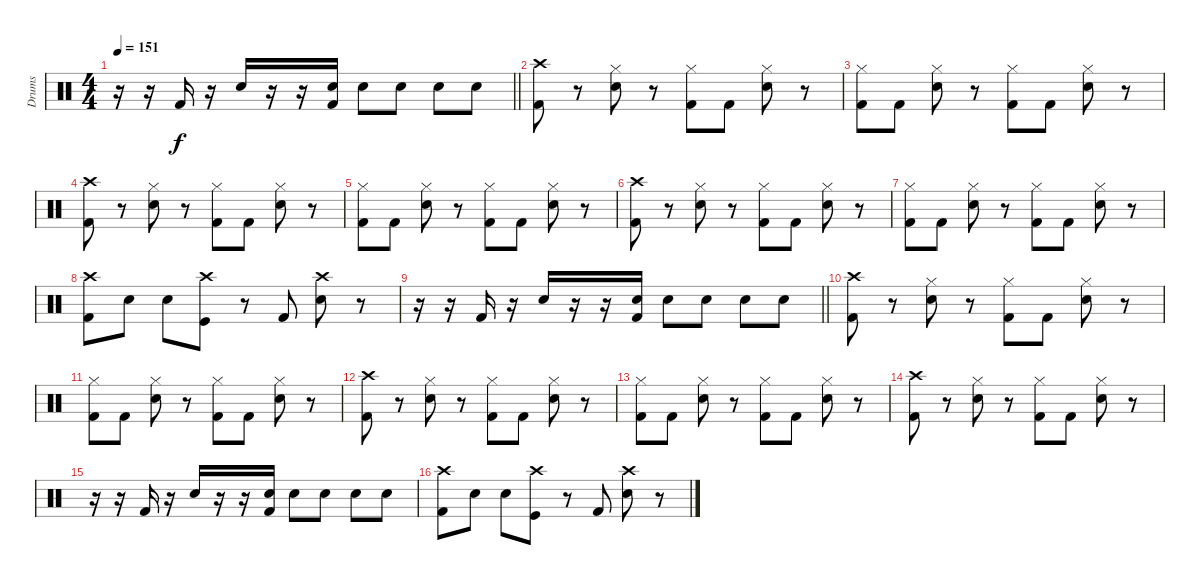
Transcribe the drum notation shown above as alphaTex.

\track ("Drums" "Drums") {instrument percussion}
\staff {score}
\articulation defaults
\ts (4 4)
\tempo 151
\clef neutral
\barLineRight lightlight
\ks c
r.16{dy f} r.16 "Kick (hit) 2".16 r.16 "Snare (hit) 2".16 r.16 r.16 ("Snare (hit) 2" "Kick (hit) 2").16 "Snare (hit) 2".8 "Snare (hit) 2".8 "Snare (hit) 2".8 "Snare (hit) 2".8 |
("Crash high (hit)" "Kick (hit) 2").8 r.8 ("Hi-Hat (closed)" "Snare (hit) 2").8 r.8 ("Hi-Hat (closed)" "Kick (hit) 2").8 "Kick (hit) 2".8 ("Hi-Hat (closed)" "Snare (hit) 2").8 r.8 |
("Hi-Hat (closed)" "Kick (hit) 2").8 "Kick (hit) 2".8 ("Hi-Hat (closed)" "Snare (hit) 2").8 r.8 ("Hi-Hat (closed)" "Kick (hit) 2").8 "Kick (hit) 2".8 ("Hi-Hat (closed)" "Snare (hit) 2").8 r.8 |
("Crash high (hit)" "Kick (hit) 2").8 r.8 ("Hi-Hat (closed)" "Snare (hit) 2").8 r.8 ("Hi-Hat (closed)" "Kick (hit) 2").8 "Kick (hit) 2".8 ("Hi-Hat (closed)" "Snare (hit) 2").8 r.8 |
("Hi-Hat (closed)" "Kick (hit) 2").8 "Kick (hit) 2".8 ("Hi-Hat (closed)" "Snare (hit) 2").8 r.8 ("Hi-Hat (closed)" "Kick (hit) 2").8 "Kick (hit) 2".8 ("Hi-Hat (closed)" "Snare (hit) 2").8 r.8 |
("Crash high (hit)" "Kick (hit) 2").8 r.8 ("Hi-Hat (closed)" "Snare (hit) 2").8 r.8 ("Hi-Hat (closed)" "Kick (hit) 2").8 "Kick (hit) 2".8 ("Hi-Hat (closed)" "Snare (hit) 2").8 r.8 |
("Hi-Hat (closed)" "Kick (hit) 2").8 "Kick (hit) 2".8 ("Hi-Hat (closed)" "Snare (hit) 2").8 r.8 ("Hi-Hat (closed)" "Kick (hit) 2").8 "Kick (hit) 2".8 ("Hi-Hat (closed)" "Snare (hit) 2").8 r.8 |
("Crash high (hit)" "Kick (hit) 2").8 "Snare (hit) 2".8 "Snare (hit) 2".8 ("Crash high (hit)" "Kick (hit)").8 r.8 "Kick (hit) 2".8 ("Crash high (hit)" "Snare (hit) 2").8 r.8 |
\barLineRight lightlight
r.16 r.16 "Kick (hit) 2".16 r.16 "Snare (hit) 2".16 r.16 r.16 ("Snare (hit) 2" "Kick (hit) 2").16 "Snare (hit) 2".8 "Snare (hit) 2".8 "Snare (hit) 2".8 "Snare (hit) 2".8 |
("Crash high (hit)" "Kick (hit) 2").8 r.8 ("Hi-Hat (closed)" "Snare (hit) 2").8 r.8 ("Hi-Hat (closed)" "Kick (hit) 2").8 "Kick (hit) 2".8 ("Hi-Hat (closed)" "Snare (hit) 2").8 r.8 |
("Hi-Hat (closed)" "Kick (hit) 2").8 "Kick (hit) 2".8 ("Hi-Hat (closed)" "Snare (hit) 2").8 r.8 ("Hi-Hat (closed)" "Kick (hit) 2").8 "Kick (hit) 2".8 ("Hi-Hat (closed)" "Snare (hit) 2").8 r.8 |
("Crash high (hit)" "Kick (hit) 2").8 r.8 ("Hi-Hat (closed)" "Snare (hit) 2").8 r.8 ("Hi-Hat (closed)" "Kick (hit) 2").8 "Kick (hit) 2".8 ("Hi-Hat (closed)" "Snare (hit) 2").8 r.8 |
("Hi-Hat (closed)" "Kick (hit) 2").8 "Kick (hit) 2".8 ("Hi-Hat (closed)" "Snare (hit) 2").8 r.8 ("Hi-Hat (closed)" "Kick (hit) 2").8 "Kick (hit) 2".8 ("Hi-Hat (closed)" "Snare (hit) 2").8 r.8 |
("Crash high (hit)" "Kick (hit) 2").8 r.8 ("Hi-Hat (closed)" "Snare (hit) 2").8 r.8 ("Hi-Hat (closed)" "Kick (hit) 2").8 "Kick (hit) 2".8 ("Hi-Hat (closed)" "Snare (hit) 2").8 r.8 |
r.16 r.16 "Kick (hit) 2".16 r.16 "Snare (hit) 2".16 r.16 r.16 ("Snare (hit) 2" "Kick (hit) 2").16 "Snare (hit) 2".8 "Snare (hit) 2".8 "Snare (hit) 2".8 "Snare (hit) 2".8 |
("Crash high (hit)" "Kick (hit) 2").8 "Snare (hit) 2".8 "Snare (hit) 2".8 ("Crash high (hit)" "Kick (hit)").8 r.8 "Kick (hit) 2".8 ("Crash high (hit)" "Snare (hit) 2").8 r.8
